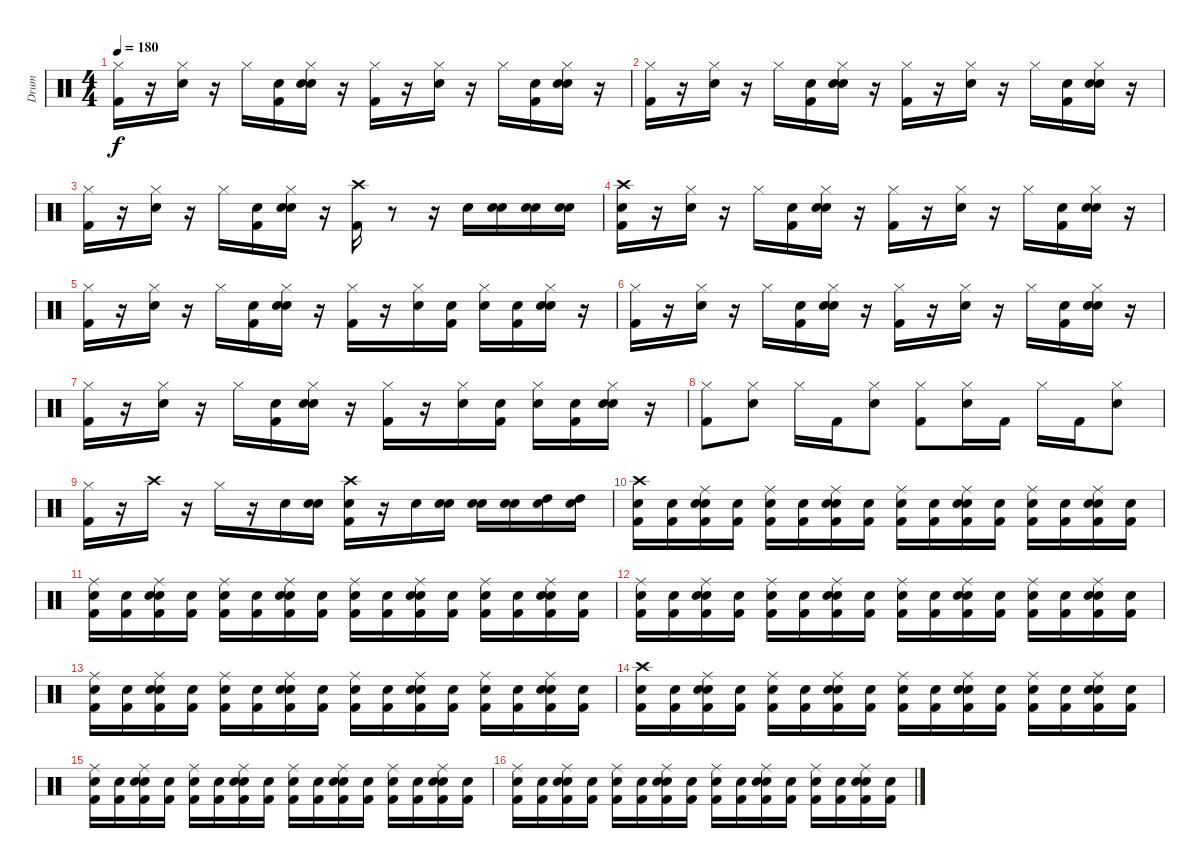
\track ("Drum" "Drum") {instrument percussion}
\staff {score}
\articulation defaults
\ts (4 4)
\tempo 180
\clef neutral
\ks c
("Kick (hit) 2" "Hi-Hat (closed)").16{dy f} r.16 ("Snare (hit) 2" "Hi-Hat (closed)").16 r.16 "Hi-Hat (closed)".16 ("Snare (hit)" "Kick (hit) 2").16 ("Snare (hit)" "Snare (hit) 2" "Hi-Hat (closed)").16 r.16 ("Kick (hit) 2" "Hi-Hat (closed)").16 r.16 ("Snare (hit) 2" "Hi-Hat (closed)").16 r.16 "Hi-Hat (closed)".16 ("Snare (hit)" "Kick (hit) 2").16 ("Snare (hit)" "Snare (hit) 2" "Hi-Hat (closed)").16 r.16 |
("Kick (hit) 2" "Hi-Hat (closed)").16 r.16 ("Snare (hit) 2" "Hi-Hat (closed)").16 r.16 "Hi-Hat (closed)".16 ("Snare (hit)" "Kick (hit) 2").16 ("Snare (hit)" "Snare (hit) 2" "Hi-Hat (closed)").16 r.16 ("Kick (hit) 2" "Hi-Hat (closed)").16 r.16 ("Snare (hit) 2" "Hi-Hat (closed)").16 r.16 "Hi-Hat (closed)".16 ("Snare (hit)" "Kick (hit) 2").16 ("Snare (hit)" "Snare (hit) 2" "Hi-Hat (closed)").16 r.16 |
("Kick (hit) 2" "Hi-Hat (closed)").16 r.16 ("Snare (hit) 2" "Hi-Hat (closed)").16 r.16 "Hi-Hat (closed)".16 ("Snare (hit)" "Kick (hit) 2").16 ("Snare (hit)" "Snare (hit) 2" "Hi-Hat (closed)").16 r.16 ("Crash high (hit)" "Kick (hit) 2").16 r.8 r.16 "Snare (hit) 2".16 ("Snare (hit)" "Snare (hit) 2").16 ("Snare (hit)" "Snare (hit) 2").16 ("Snare (hit)" "Snare (hit) 2").16 |
("Snare (hit)" "Kick (hit) 2" "Crash high (hit)").16 r.16 ("Snare (hit) 2" "Hi-Hat (closed)").16 r.16 "Hi-Hat (closed)".16 ("Snare (hit)" "Kick (hit) 2").16 ("Snare (hit)" "Snare (hit) 2" "Hi-Hat (closed)").16 r.16 ("Kick (hit) 2" "Hi-Hat (closed)").16 r.16 ("Snare (hit) 2" "Hi-Hat (closed)").16 r.16 "Hi-Hat (closed)".16 ("Snare (hit)" "Kick (hit) 2").16 ("Snare (hit)" "Snare (hit) 2" "Hi-Hat (closed)").16 r.16 |
("Kick (hit) 2" "Hi-Hat (closed)").16 r.16 ("Snare (hit) 2" "Hi-Hat (closed)").16 r.16 "Hi-Hat (closed)".16 ("Snare (hit)" "Kick (hit) 2").16 ("Snare (hit)" "Snare (hit) 2" "Hi-Hat (closed)").16 r.16 ("Kick (hit) 2" "Hi-Hat (closed)").16 r.16 ("Snare (hit) 2" "Hi-Hat (closed)").16 ("Snare (hit)" "Kick (hit) 2").16 ("Snare (hit)" "Hi-Hat (closed)").16 ("Snare (hit)" "Kick (hit) 2").16 ("Snare (hit)" "Snare (hit) 2" "Hi-Hat (closed)").16 r.16 |
("Kick (hit) 2" "Hi-Hat (closed)").16 r.16 ("Snare (hit) 2" "Hi-Hat (closed)").16 r.16 "Hi-Hat (closed)".16 ("Snare (hit)" "Kick (hit) 2").16 ("Snare (hit)" "Snare (hit) 2" "Hi-Hat (closed)").16 r.16 ("Kick (hit) 2" "Hi-Hat (closed)").16 r.16 ("Snare (hit) 2" "Hi-Hat (closed)").16 r.16 "Hi-Hat (closed)".16 ("Snare (hit)" "Kick (hit) 2").16 ("Snare (hit)" "Snare (hit) 2" "Hi-Hat (closed)").16 r.16 |
("Hi-Hat (closed)" "Kick (hit) 2").16 r.16 ("Snare (hit) 2" "Hi-Hat (closed)").16 r.16 "Hi-Hat (closed)".16 ("Snare (hit)" "Kick (hit) 2").16 ("Snare (hit)" "Snare (hit) 2" "Hi-Hat (closed)").16 r.16 ("Kick (hit) 2" "Hi-Hat (closed)").16 r.16 ("Snare (hit) 2" "Hi-Hat (closed)").16 ("Snare (hit)" "Kick (hit) 2").16 ("Snare (hit)" "Hi-Hat (closed)").16 ("Snare (hit)" "Kick (hit) 2").16 ("Snare (hit)" "Snare (hit) 2" "Hi-Hat (closed)").16 r.16 |
("Hi-Hat (closed)" "Kick (hit) 2").8 ("Snare (hit) 2" "Hi-Hat (closed)").8 "Hi-Hat (closed)".16 "Kick (hit) 2".16 ("Snare (hit) 2" "Hi-Hat (closed)").8 ("Kick (hit) 2" "Hi-Hat (closed)").8 ("Snare (hit) 2" "Hi-Hat (closed)").16 "Kick (hit) 2".16 "Hi-Hat (closed)".16 "Kick (hit) 2".16 ("Snare (hit) 2" "Hi-Hat (closed)").8 |
("Kick (hit) 2" "Hi-Hat (closed)").16 r.16 "Crash high (hit)".16 r.16 "Hi-Hat (closed)".16 r.16 "Snare (hit) 2".16 ("Snare (hit)" "Snare (hit) 2").16 ("Snare (hit)" "Kick (hit) 2" "Crash high (hit)").16 r.16 "Snare (hit) 2".16 ("Snare (hit)" "Snare (hit) 2").16 ("Snare (hit)" "Snare (hit) 2").16 ("Snare (hit)" "Snare (hit) 2").16 ("Snare (hit)" "High Tom (hit)").16 ("Snare (hit)" "High Tom (hit)").16 |
("Snare (hit)" "Crash high (hit)" "Kick (hit) 2").16 ("Snare (hit)" "Kick (hit) 2").16 ("Snare (hit)" "Snare (hit) 2" "Ride (middle)" "Kick (hit) 2").16 ("Snare (hit)" "Kick (hit) 2").16 ("Snare (hit)" "Ride (middle)" "Kick (hit) 2").16 ("Snare (hit)" "Kick (hit) 2").16 ("Snare (hit)" "Snare (hit) 2" "Ride (middle)" "Kick (hit) 2").16 ("Snare (hit)" "Kick (hit) 2").16 ("Snare (hit)" "Ride (middle)" "Kick (hit) 2").16 ("Snare (hit)" "Kick (hit) 2").16 ("Snare (hit)" "Snare (hit) 2" "Ride (middle)" "Kick (hit) 2").16 ("Snare (hit)" "Kick (hit) 2").16 ("Snare (hit)" "Ride (middle)" "Kick (hit) 2").16 ("Snare (hit)" "Kick (hit) 2").16 ("Snare (hit)" "Snare (hit) 2" "Ride (middle)" "Kick (hit) 2").16 ("Snare (hit)" "Kick (hit) 2").16 |
("Snare (hit)" "Ride (middle)" "Kick (hit) 2").16 ("Snare (hit)" "Kick (hit) 2").16 ("Snare (hit)" "Snare (hit) 2" "Ride (middle)" "Kick (hit) 2").16 ("Snare (hit)" "Kick (hit) 2").16 ("Snare (hit)" "Ride (middle)" "Kick (hit) 2").16 ("Snare (hit)" "Kick (hit) 2").16 ("Snare (hit)" "Snare (hit) 2" "Ride (middle)" "Kick (hit) 2").16 ("Snare (hit)" "Kick (hit) 2").16 ("Snare (hit)" "Kick (hit) 2" "Ride (middle)").16 ("Snare (hit)" "Kick (hit) 2").16 ("Snare (hit)" "Snare (hit) 2" "Ride (middle)" "Kick (hit) 2").16 ("Snare (hit)" "Kick (hit) 2").16 ("Snare (hit)" "Ride (middle)" "Kick (hit) 2").16 ("Snare (hit)" "Kick (hit) 2").16 ("Snare (hit)" "Snare (hit) 2" "Ride (middle)" "Kick (hit) 2").16 ("Snare (hit)" "Kick (hit) 2").16 |
("Snare (hit)" "Ride (middle)" "Kick (hit) 2").16 ("Snare (hit)" "Kick (hit) 2").16 ("Snare (hit)" "Snare (hit) 2" "Ride (middle)" "Kick (hit) 2").16 ("Snare (hit)" "Kick (hit) 2").16 ("Snare (hit)" "Ride (middle)" "Kick (hit) 2").16 ("Snare (hit)" "Kick (hit) 2").16 ("Snare (hit)" "Snare (hit) 2" "Ride (middle)" "Kick (hit) 2").16 ("Snare (hit)" "Kick (hit) 2").16 ("Snare (hit)" "Kick (hit) 2" "Ride (middle)").16 ("Snare (hit)" "Kick (hit) 2").16 ("Snare (hit)" "Snare (hit) 2" "Ride (middle)" "Kick (hit) 2").16 ("Snare (hit)" "Kick (hit) 2").16 ("Snare (hit)" "Ride (middle)" "Kick (hit) 2").16 ("Snare (hit)" "Kick (hit) 2").16 ("Snare (hit)" "Snare (hit) 2" "Ride (middle)" "Kick (hit) 2").16 ("Snare (hit)" "Kick (hit) 2").16 |
("Snare (hit)" "Ride (middle)" "Kick (hit) 2").16 ("Snare (hit)" "Kick (hit) 2").16 ("Snare (hit)" "Snare (hit) 2" "Ride (middle)" "Kick (hit) 2").16 ("Snare (hit)" "Kick (hit) 2").16 ("Snare (hit)" "Ride (middle)" "Kick (hit) 2").16 ("Snare (hit)" "Kick (hit) 2").16 ("Snare (hit)" "Snare (hit) 2" "Ride (middle)" "Kick (hit) 2").16 ("Snare (hit)" "Kick (hit) 2").16 ("Snare (hit)" "Kick (hit) 2" "Ride (middle)").16 ("Snare (hit)" "Kick (hit) 2").16 ("Snare (hit)" "Snare (hit) 2" "Ride (middle)" "Kick (hit) 2").16 ("Snare (hit)" "Kick (hit) 2").16 ("Snare (hit)" "Ride (middle)" "Kick (hit) 2").16 ("Snare (hit)" "Kick (hit) 2").16 ("Snare (hit)" "Snare (hit) 2" "Ride (middle)" "Kick (hit) 2").16 ("Snare (hit)" "Kick (hit) 2").16 |
("Snare (hit)" "Crash high (hit)" "Kick (hit) 2").16 ("Snare (hit)" "Kick (hit) 2").16 ("Snare (hit)" "Snare (hit) 2" "Ride (middle)" "Kick (hit) 2").16 ("Snare (hit)" "Kick (hit) 2").16 ("Snare (hit)" "Ride (middle)" "Kick (hit) 2").16 ("Snare (hit)" "Kick (hit) 2").16 ("Snare (hit)" "Snare (hit) 2" "Kick (hit) 2" "Ride (middle)").16 ("Snare (hit)" "Kick (hit) 2").16 ("Snare (hit)" "Ride (middle)" "Kick (hit) 2").16 ("Snare (hit)" "Kick (hit) 2").16 ("Snare (hit)" "Snare (hit) 2" "Ride (middle)" "Kick (hit) 2").16 ("Snare (hit)" "Kick (hit) 2").16 ("Snare (hit)" "Ride (middle)" "Kick (hit) 2").16 ("Snare (hit)" "Kick (hit) 2").16 ("Snare (hit)" "Snare (hit) 2" "Ride (middle)" "Kick (hit) 2").16 ("Snare (hit)" "Kick (hit) 2").16 |
("Snare (hit)" "Ride (middle)" "Kick (hit) 2").16 ("Snare (hit)" "Kick (hit) 2").16 ("Snare (hit)" "Snare (hit) 2" "Ride (middle)" "Kick (hit) 2").16 ("Snare (hit)" "Kick (hit) 2").16 ("Snare (hit)" "Ride (middle)" "Kick (hit) 2").16 ("Snare (hit)" "Kick (hit) 2").16 ("Snare (hit)" "Snare (hit) 2" "Ride (middle)" "Kick (hit) 2").16 ("Snare (hit)" "Kick (hit) 2").16 ("Snare (hit)" "Ride (middle)" "Kick (hit) 2").16 ("Snare (hit)" "Kick (hit) 2").16 ("Snare (hit)" "Snare (hit) 2" "Ride (middle)" "Kick (hit) 2").16 ("Snare (hit)" "Kick (hit) 2").16 ("Snare (hit)" "Ride (middle)" "Kick (hit) 2").16 ("Snare (hit)" "Kick (hit) 2").16 ("Snare (hit)" "Snare (hit) 2" "Ride (middle)" "Kick (hit) 2").16 ("Snare (hit)" "Kick (hit) 2").16 |
("Snare (hit)" "Ride (middle)" "Kick (hit) 2").16 ("Snare (hit)" "Kick (hit) 2").16 ("Snare (hit)" "Snare (hit) 2" "Ride (middle)" "Kick (hit) 2").16 ("Snare (hit)" "Kick (hit) 2").16 ("Snare (hit)" "Ride (middle)" "Kick (hit) 2").16 ("Snare (hit)" "Kick (hit) 2").16 ("Snare (hit)" "Snare (hit) 2" "Ride (middle)" "Kick (hit) 2").16 ("Snare (hit)" "Kick (hit) 2").16 ("Snare (hit)" "Ride (middle)" "Kick (hit) 2").16 ("Snare (hit)" "Kick (hit) 2").16 ("Snare (hit)" "Snare (hit) 2" "Ride (middle)" "Kick (hit) 2").16 ("Snare (hit)" "Kick (hit) 2").16 ("Snare (hit)" "Ride (middle)" "Kick (hit) 2").16 ("Snare (hit)" "Kick (hit) 2").16 ("Snare (hit)" "Snare (hit) 2" "Ride (middle)" "Kick (hit) 2").16 ("Snare (hit)" "Kick (hit) 2").16
